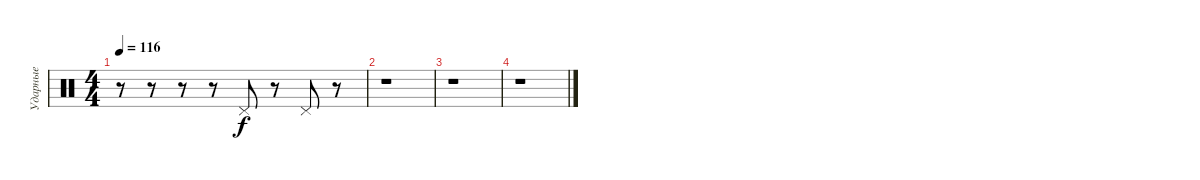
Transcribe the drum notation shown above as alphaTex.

\track ("Ударные" "Ударные") {instrument percussion}
\staff {score}
\articulation defaults
\ts (4 4)
\tempo 116
\clef neutral
\ks c
r.8{dy f} r.8 r.8 r.8 "Pedal Hi-Hat (hit)".8 r.8 "Pedal Hi-Hat (hit)".8 r.8 |
r.1 |
r.1 |
r.1
